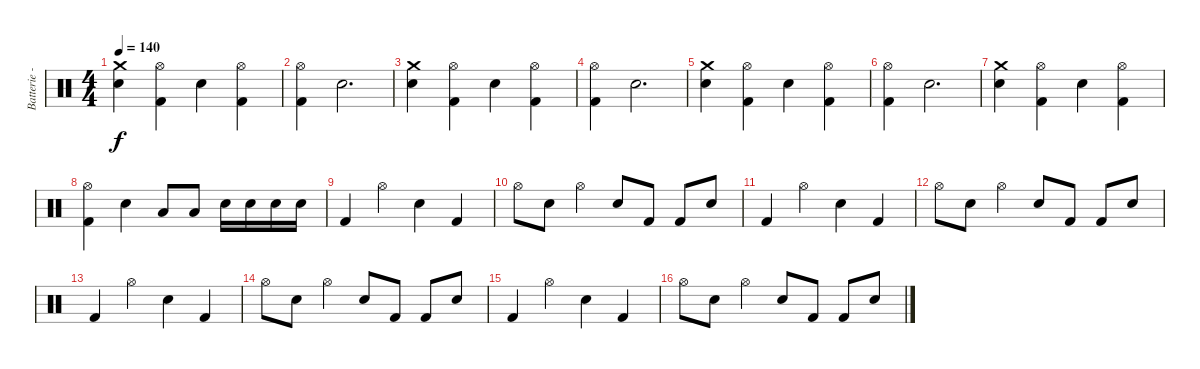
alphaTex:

\track ("Batterie - Anders Johansson" "Batterie -") {instrument percussion}
\staff {score}
\articulation defaults
\ts (4 4)
\tempo 140
\clef neutral
\ks c
("Crash medium (hit)" "Electric Snare (hit)").4{dy f} ("Hi-Hat (open)" "Kick (hit) 2").4 "Electric Snare (hit)".4 ("Hi-Hat (open)" "Kick (hit) 2").4 |
("Hi-Hat (open)" "Kick (hit) 2").4 "Electric Snare (hit)".2{d} |
("Crash medium (hit)" "Electric Snare (hit)").4 ("Hi-Hat (open)" "Kick (hit) 2").4 "Electric Snare (hit)".4 ("Hi-Hat (open)" "Kick (hit) 2").4 |
("Hi-Hat (open)" "Kick (hit) 2").4 "Electric Snare (hit)".2{d} |
("Crash medium (hit)" "Electric Snare (hit)").4 ("Hi-Hat (open)" "Kick (hit) 2").4 "Electric Snare (hit)".4 ("Hi-Hat (open)" "Kick (hit) 2").4 |
("Hi-Hat (open)" "Kick (hit) 2").4 "Electric Snare (hit)".2{d} |
("Crash medium (hit)" "Electric Snare (hit)").4 ("Hi-Hat (open)" "Kick (hit) 2").4 "Electric Snare (hit)".4 ("Hi-Hat (open)" "Kick (hit) 2").4 |
("Hi-Hat (open)" "Kick (hit) 2").4 "Electric Snare (hit)".4 "Low Tom (hit)".8 "Low Tom (hit)".8 "Electric Snare (hit)".16 "Electric Snare (hit)".16 "Electric Snare (hit)".16 "Electric Snare (hit)".16 |
"Kick (hit) 2".4 "Hi-Hat (open)".4 "Electric Snare (hit)".4 "Kick (hit) 2".4 |
"Hi-Hat (open)".8 "Electric Snare (hit)".8 "Hi-Hat (open)".4 "Electric Snare (hit)".8 "Kick (hit) 2".8 "Kick (hit) 2".8 "Electric Snare (hit)".8 |
"Kick (hit) 2".4 "Hi-Hat (open)".4 "Electric Snare (hit)".4 "Kick (hit) 2".4 |
"Hi-Hat (open)".8 "Electric Snare (hit)".8 "Hi-Hat (open)".4 "Electric Snare (hit)".8 "Kick (hit) 2".8 "Kick (hit) 2".8 "Electric Snare (hit)".8 |
"Kick (hit) 2".4 "Hi-Hat (open)".4 "Electric Snare (hit)".4 "Kick (hit) 2".4 |
"Hi-Hat (open)".8 "Electric Snare (hit)".8 "Hi-Hat (open)".4 "Electric Snare (hit)".8 "Kick (hit) 2".8 "Kick (hit) 2".8 "Electric Snare (hit)".8 |
"Kick (hit) 2".4 "Hi-Hat (open)".4 "Electric Snare (hit)".4 "Kick (hit) 2".4 |
"Hi-Hat (open)".8 "Electric Snare (hit)".8 "Hi-Hat (open)".4 "Electric Snare (hit)".8 "Kick (hit) 2".8 "Kick (hit) 2".8 "Electric Snare (hit)".8
